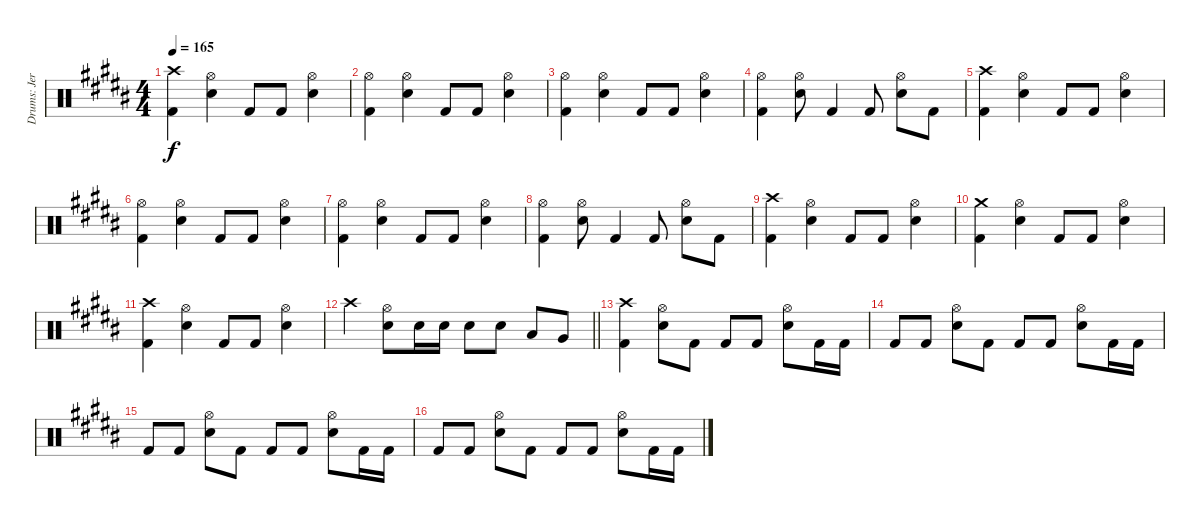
\track ("Drums: Jere Luokkamäki" "Drums: Jer") {instrument percussion}
\staff {score}
\articulation defaults
\ts (4 4)
\tempo 165
\clef neutral
\ks g#minor
("Crash high (hit)" "Kick (hit) 2").4{dy f} ("Hi-Hat (open)" "Electric Snare (hit)").4 "Kick (hit) 2".8 "Kick (hit) 2".8 ("Hi-Hat (open)" "Electric Snare (hit)").4 |
("Hi-Hat (open)" "Kick (hit) 2").4 ("Hi-Hat (open)" "Electric Snare (hit)").4 "Kick (hit) 2".8 "Kick (hit) 2".8 ("Hi-Hat (open)" "Electric Snare (hit)").4 |
("Hi-Hat (open)" "Kick (hit) 2").4 ("Hi-Hat (open)" "Electric Snare (hit)").4 "Kick (hit) 2".8 "Kick (hit) 2".8 ("Hi-Hat (open)" "Electric Snare (hit)").4 |
("Hi-Hat (open)" "Kick (hit) 2").4 ("Hi-Hat (open)" "Electric Snare (hit)").8 "Kick (hit) 2".4 "Kick (hit) 2".8 ("Hi-Hat (open)" "Electric Snare (hit)").8 "Kick (hit) 2".8 |
("Crash high (hit)" "Kick (hit) 2").4 ("Hi-Hat (open)" "Electric Snare (hit)").4 "Kick (hit) 2".8 "Kick (hit) 2".8 ("Hi-Hat (open)" "Electric Snare (hit)").4 |
("Hi-Hat (open)" "Kick (hit) 2").4 ("Hi-Hat (open)" "Electric Snare (hit)").4 "Kick (hit) 2".8 "Kick (hit) 2".8 ("Hi-Hat (open)" "Electric Snare (hit)").4 |
("Hi-Hat (open)" "Kick (hit) 2").4 ("Hi-Hat (open)" "Electric Snare (hit)").4 "Kick (hit) 2".8 "Kick (hit) 2".8 ("Hi-Hat (open)" "Electric Snare (hit)").4 |
("Hi-Hat (open)" "Kick (hit) 2").4 ("Hi-Hat (open)" "Electric Snare (hit)").8 "Kick (hit) 2".4 "Kick (hit) 2".8 ("Hi-Hat (open)" "Electric Snare (hit)").8 "Kick (hit) 2".8 |
("Crash high (hit)" "Kick (hit) 2").4 ("Hi-Hat (open)" "Electric Snare (hit)").4 "Kick (hit) 2".8 "Kick (hit) 2".8 ("Hi-Hat (open)" "Electric Snare (hit)").4 |
("Crash medium (hit)" "Kick (hit) 2").4 ("Hi-Hat (open)" "Electric Snare (hit)").4 "Kick (hit) 2".8 "Kick (hit) 2".8 ("Hi-Hat (open)" "Electric Snare (hit)").4 |
("Crash high (hit)" "Kick (hit) 2").4 ("Hi-Hat (open)" "Electric Snare (hit)").4 "Kick (hit) 2".8 "Kick (hit) 2".8 ("Hi-Hat (open)" "Electric Snare (hit)").4 |
\barLineRight lightlight "Crash high (hit)".4
("Hi-Hat (open)" "Electric Snare (hit)").8 "Electric Snare (hit)".16 "Electric Snare (hit)".16 "Electric Snare (hit)".8 "Electric Snare (hit)".8 "Low Tom (hit)".8 "Very Low Tom (hit)".8 |
\section ("" "")
("Crash high (hit)" "Kick (hit) 2").4 ("Hi-Hat (open)" "Electric Snare (hit)").8 "Kick (hit) 2".8 "Kick (hit) 2".8 "Kick (hit) 2".8 ("Hi-Hat (open)" "Electric Snare (hit)").8 "Kick (hit) 2".16 "Kick (hit) 2".16 |
"Kick (hit) 2".8 "Kick (hit) 2".8 ("Hi-Hat (open)" "Electric Snare (hit)").8 "Kick (hit) 2".8 "Kick (hit) 2".8 "Kick (hit) 2".8 ("Hi-Hat (open)" "Electric Snare (hit)").8 "Kick (hit) 2".16 "Kick (hit) 2".16 |
"Kick (hit) 2".8 "Kick (hit) 2".8 ("Hi-Hat (open)" "Electric Snare (hit)").8 "Kick (hit) 2".8 "Kick (hit) 2".8 "Kick (hit) 2".8 ("Hi-Hat (open)" "Electric Snare (hit)").8 "Kick (hit) 2".16 "Kick (hit) 2".16 |
"Kick (hit) 2".8 "Kick (hit) 2".8 ("Hi-Hat (open)" "Electric Snare (hit)").8 "Kick (hit) 2".8 "Kick (hit) 2".8 "Kick (hit) 2".8 ("Hi-Hat (open)" "Electric Snare (hit)").8 "Kick (hit) 2".16 "Kick (hit) 2".16
